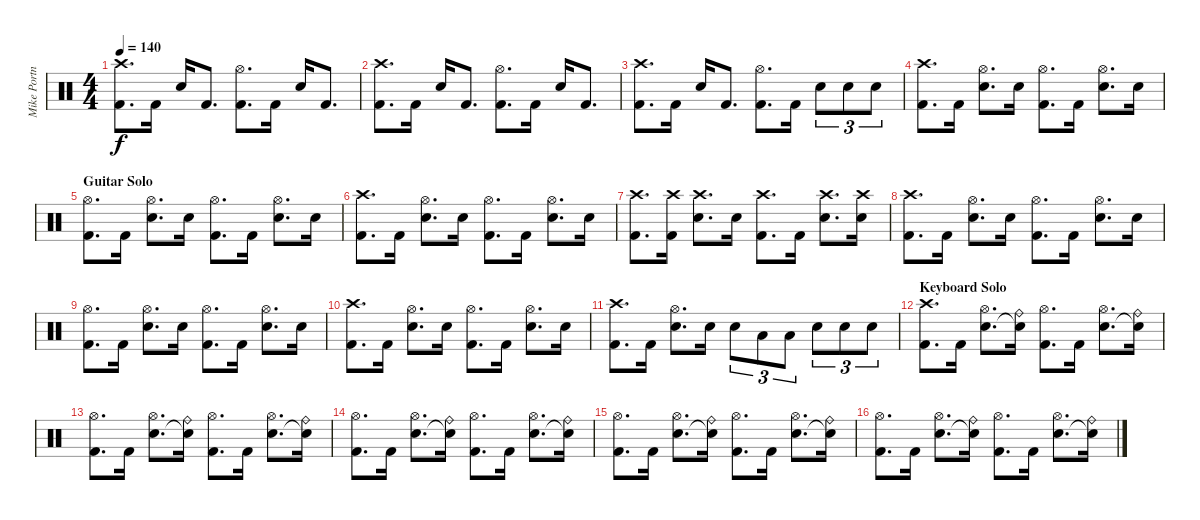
\track ("Mike Portnoy Drums/Percussion" "Mike Portn") {instrument percussion}
\staff {score}
\articulation defaults
\ts (4 4)
\tempo 140
\clef neutral
\ks c
("Crash high (hit)" "Kick (hit) 2").8{d dy f} "Kick (hit) 2".16 "Snare (hit) 2".16 "Kick (hit) 2".8{d} ("Hi-Hat (open)" "Kick (hit) 2").8{d} "Kick (hit) 2".16 "Snare (hit) 2".16 "Kick (hit) 2".8{d} |
("Crash high (hit)" "Kick (hit) 2").8{d} "Kick (hit) 2".16 "Snare (hit) 2".16 "Kick (hit) 2".8{d} ("Hi-Hat (open)" "Kick (hit) 2").8{d} "Kick (hit) 2".16 "Snare (hit) 2".16 "Kick (hit) 2".8{d} |
("Crash high (hit)" "Kick (hit) 2").8{d} "Kick (hit) 2".16 "Snare (hit) 2".16 "Kick (hit) 2".8{d} ("Hi-Hat (open)" "Kick (hit) 2").8{d} "Kick (hit) 2".16 "Snare (hit) 2".8{tu (3 2)} "Snare (hit) 2".8{tu (3 2)} "Snare (hit) 2".8{tu (3 2)} |
("Crash high (hit)" "Kick (hit) 2").8{d} "Kick (hit) 2".16 ("Hi-Hat (open)" "Snare (hit) 2").8{d} "Snare (hit) 2".16 ("Hi-Hat (open)" "Kick (hit) 2").8{d} "Kick (hit) 2".16 ("Hi-Hat (open)" "Snare (hit) 2").8{d} "Snare (hit) 2".16 |
\section ("" "Guitar Solo")
("Hi-Hat (open)" "Kick (hit) 2").8{d} "Kick (hit) 2".16 ("Hi-Hat (open)" "Snare (hit) 2").8{d} "Snare (hit) 2".16 ("Hi-Hat (open)" "Kick (hit) 2").8{d} "Kick (hit) 2".16 ("Hi-Hat (open)" "Snare (hit) 2").8{d} "Snare (hit) 2".16 |
("Crash high (hit)" "Kick (hit) 2").8{d} "Kick (hit) 2".16 ("Hi-Hat (open)" "Snare (hit) 2").8{d} "Snare (hit) 2".16 ("Hi-Hat (open)" "Kick (hit) 2").8{d} "Kick (hit) 2".16 ("Hi-Hat (open)" "Snare (hit) 2").8{d} "Snare (hit) 2".16 |
("Crash high (hit)" "Kick (hit) 2").8{d} ("Crash high (hit)" "Kick (hit) 2").16 ("Crash high (hit)" "Snare (hit) 2").8{d} "Snare (hit) 2".16 ("Crash high (hit)" "Kick (hit) 2").8{d} "Kick (hit) 2".16 ("Crash high (hit)" "Snare (hit) 2").8{d} ("Crash high (hit)" "Snare (hit) 2").16 |
("Crash high (hit)" "Kick (hit) 2").8{d} "Kick (hit) 2".16 ("Hi-Hat (open)" "Snare (hit) 2").8{d} "Snare (hit) 2".16 ("Hi-Hat (open)" "Kick (hit) 2").8{d} "Kick (hit) 2".16 ("Hi-Hat (open)" "Snare (hit) 2").8{d} "Snare (hit) 2".16 |
("Hi-Hat (open)" "Kick (hit) 2").8{d} "Kick (hit) 2".16 ("Hi-Hat (open)" "Snare (hit) 2").8{d} "Snare (hit) 2".16 ("Hi-Hat (open)" "Kick (hit) 2").8{d} "Kick (hit) 2".16 ("Hi-Hat (open)" "Snare (hit) 2").8{d} "Snare (hit) 2".16 |
("Crash high (hit)" "Kick (hit) 2").8{d} "Kick (hit) 2".16 ("Hi-Hat (open)" "Snare (hit) 2").8{d} "Snare (hit) 2".16 ("Hi-Hat (open)" "Kick (hit) 2").8{d} "Kick (hit) 2".16 ("Hi-Hat (open)" "Snare (hit) 2").8{d} "Snare (hit) 2".16 |
("Crash high (hit)" "Kick (hit) 2").8{d} "Kick (hit) 2".16 ("Hi-Hat (open)" "Snare (hit) 2").8{d} "Snare (hit) 2".16 "Snare (hit) 2".8{tu (3 2)} "Low Tom (hit)".8{tu (3 2)} "Low Floor Tom (hit)".8{tu (3 2)} "Snare (hit) 2".8{tu (3 2)} "Snare (hit) 2".8{tu (3 2)} "Snare (hit) 2".8{tu (3 2)} |
\section ("" "Keyboard Solo")
("Crash high (hit)" "Kick (hit) 2").8{d} "Kick (hit) 2".16 ("Hi-Hat (open)" "Snare (hit) 2").8{d} ("Ride (bell)" "Snare (hit) 2"{t}).16 ("Hi-Hat (open)" "Kick (hit) 2").8{d} "Kick (hit) 2".16 ("Hi-Hat (open)" "Snare (hit) 2").8{d} ("Ride (bell)" "Snare (hit) 2"{t}).16 |
("Hi-Hat (open)" "Kick (hit) 2").8{d} "Kick (hit) 2".16 ("Hi-Hat (open)" "Snare (hit) 2").8{d} ("Ride (bell)" "Snare (hit) 2"{t}).16 ("Hi-Hat (open)" "Kick (hit) 2").8{d} "Kick (hit) 2".16 ("Hi-Hat (open)" "Snare (hit) 2").8{d} ("Ride (bell)" "Snare (hit) 2"{t}).16 |
("Hi-Hat (open)" "Kick (hit) 2").8{d} "Kick (hit) 2".16 ("Hi-Hat (open)" "Snare (hit) 2").8{d} ("Ride (bell)" "Snare (hit) 2"{t}).16 ("Hi-Hat (open)" "Kick (hit) 2").8{d} "Kick (hit) 2".16 ("Hi-Hat (open)" "Snare (hit) 2").8{d} ("Ride (bell)" "Snare (hit) 2"{t}).16 |
("Hi-Hat (open)" "Kick (hit) 2").8{d} "Kick (hit) 2".16 ("Hi-Hat (open)" "Snare (hit) 2").8{d} ("Ride (bell)" "Snare (hit) 2"{t}).16 ("Hi-Hat (open)" "Kick (hit) 2").8{d} "Kick (hit) 2".16 ("Hi-Hat (open)" "Snare (hit) 2").8{d} ("Ride (bell)" "Snare (hit) 2"{t}).16 |
("Hi-Hat (open)" "Kick (hit) 2").8{d} "Kick (hit) 2".16 ("Hi-Hat (open)" "Snare (hit) 2").8{d} ("Ride (bell)" "Snare (hit) 2"{t}).16 ("Hi-Hat (open)" "Kick (hit) 2").8{d} "Kick (hit) 2".16 ("Hi-Hat (open)" "Snare (hit) 2").8{d} ("Ride (bell)" "Snare (hit) 2"{t}).16
